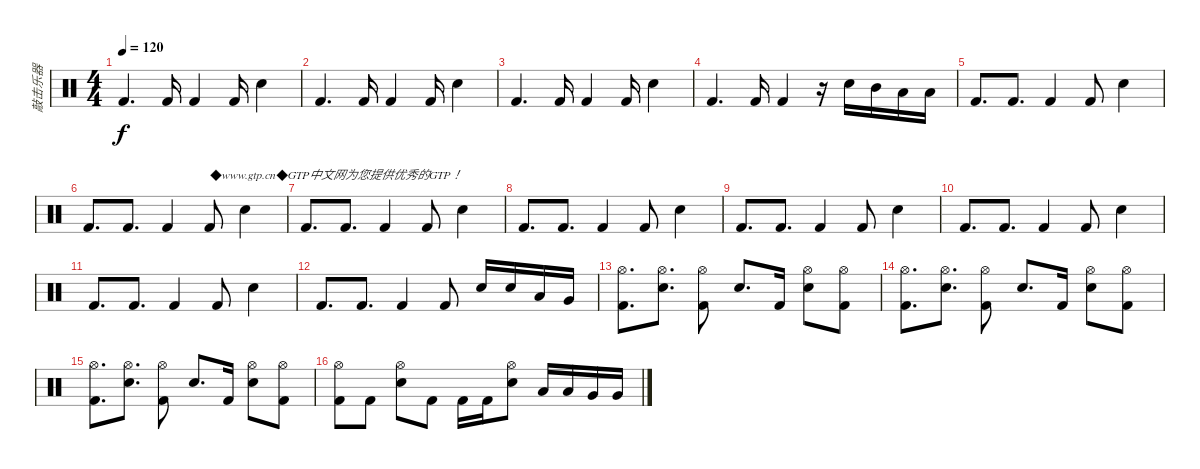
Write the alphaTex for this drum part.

\track ("敲击乐器" "敲击乐器") {instrument percussion}
\staff {score}
\articulation defaults
\ts (4 4)
\tempo 120
\clef neutral
\ks c "Kick (hit) 2".4{d dy f} "Kick (hit) 2".16 "Kick (hit) 2".4 "Kick (hit) 2".16 "Snare (hit) 2".4
|
"Kick (hit) 2".4{d} "Kick (hit) 2".16 "Kick (hit) 2".4 "Kick (hit) 2".16 "Snare (hit) 2".4 |
"Kick (hit) 2".4{d} "Kick (hit) 2".16 "Kick (hit) 2".4 "Kick (hit) 2".16 "Snare (hit) 2".4 |
"Kick (hit) 2".4{d} "Kick (hit) 2".16 "Kick (hit) 2".4 r.16 "Snare (hit) 2".16 "Mid Tom (hit)".16 "Low Tom (hit)".16 "Low Floor Tom (hit)".16 |
"Kick (hit) 2".8{d} "Kick (hit) 2".8{d} "Kick (hit) 2".4 "Kick (hit) 2".8 "Snare (hit) 2".4 |
"Kick (hit) 2".8{d} "Kick (hit) 2".8{d} "Kick (hit) 2".4 "Kick (hit) 2".8{txt "◆www.gtp.cn◆GTP中文网为您提供优秀的GTP！"} "Snare (hit) 2".4 |
"Kick (hit) 2".8{d} "Kick (hit) 2".8{d} "Kick (hit) 2".4 "Kick (hit) 2".8 "Snare (hit) 2".4 |
"Kick (hit) 2".8{d} "Kick (hit) 2".8{d} "Kick (hit) 2".4 "Kick (hit) 2".8 "Snare (hit) 2".4 |
"Kick (hit) 2".8{d} "Kick (hit) 2".8{d} "Kick (hit) 2".4 "Kick (hit) 2".8 "Snare (hit) 2".4 |
"Kick (hit) 2".8{d} "Kick (hit) 2".8{d} "Kick (hit) 2".4 "Kick (hit) 2".8 "Snare (hit) 2".4 |
"Kick (hit) 2".8{d} "Kick (hit) 2".8{d} "Kick (hit) 2".4 "Kick (hit) 2".8 "Snare (hit) 2".4 |
"Kick (hit) 2".8{d} "Kick (hit) 2".8{d} "Kick (hit) 2".4 "Kick (hit) 2".8 "Snare (hit) 2".16 "Snare (hit) 2".16 "Low Tom (hit)".16 "Very Low Tom (hit)".16 |
("Hi-Hat (open)" "Kick (hit) 2").8{d} ("Hi-Hat (open)" "Snare (hit) 2").8{d} ("Hi-Hat (open)" "Kick (hit) 2").8 "Snare (hit) 2".8{d} "Kick (hit) 2".16 ("Hi-Hat (open)" "Snare (hit) 2").8 ("Hi-Hat (open)" "Kick (hit) 2").8 |
("Hi-Hat (open)" "Kick (hit) 2").8{d} ("Hi-Hat (open)" "Snare (hit) 2").8{d} ("Hi-Hat (open)" "Kick (hit) 2").8 "Snare (hit) 2".8{d} "Kick (hit) 2".16 ("Hi-Hat (open)" "Snare (hit) 2").8 ("Hi-Hat (open)" "Kick (hit) 2").8 |
("Hi-Hat (open)" "Kick (hit) 2").8{d} ("Hi-Hat (open)" "Snare (hit) 2").8{d} ("Hi-Hat (open)" "Kick (hit) 2").8 "Snare (hit) 2".8{d} "Kick (hit) 2".16 ("Hi-Hat (open)" "Snare (hit) 2").8 ("Hi-Hat (open)" "Kick (hit) 2").8 |
("Hi-Hat (open)" "Kick (hit) 2").8 "Kick (hit) 2".8 ("Hi-Hat (open)" "Snare (hit) 2").8 "Kick (hit) 2".8 "Kick (hit) 2".16 "Kick (hit) 2".16 ("Hi-Hat (open)" "Snare (hit) 2").8 "Low Tom (hit)".16 "Low Tom (hit)".16 "Very Low Tom (hit)".16 "Very Low Tom (hit)".16
